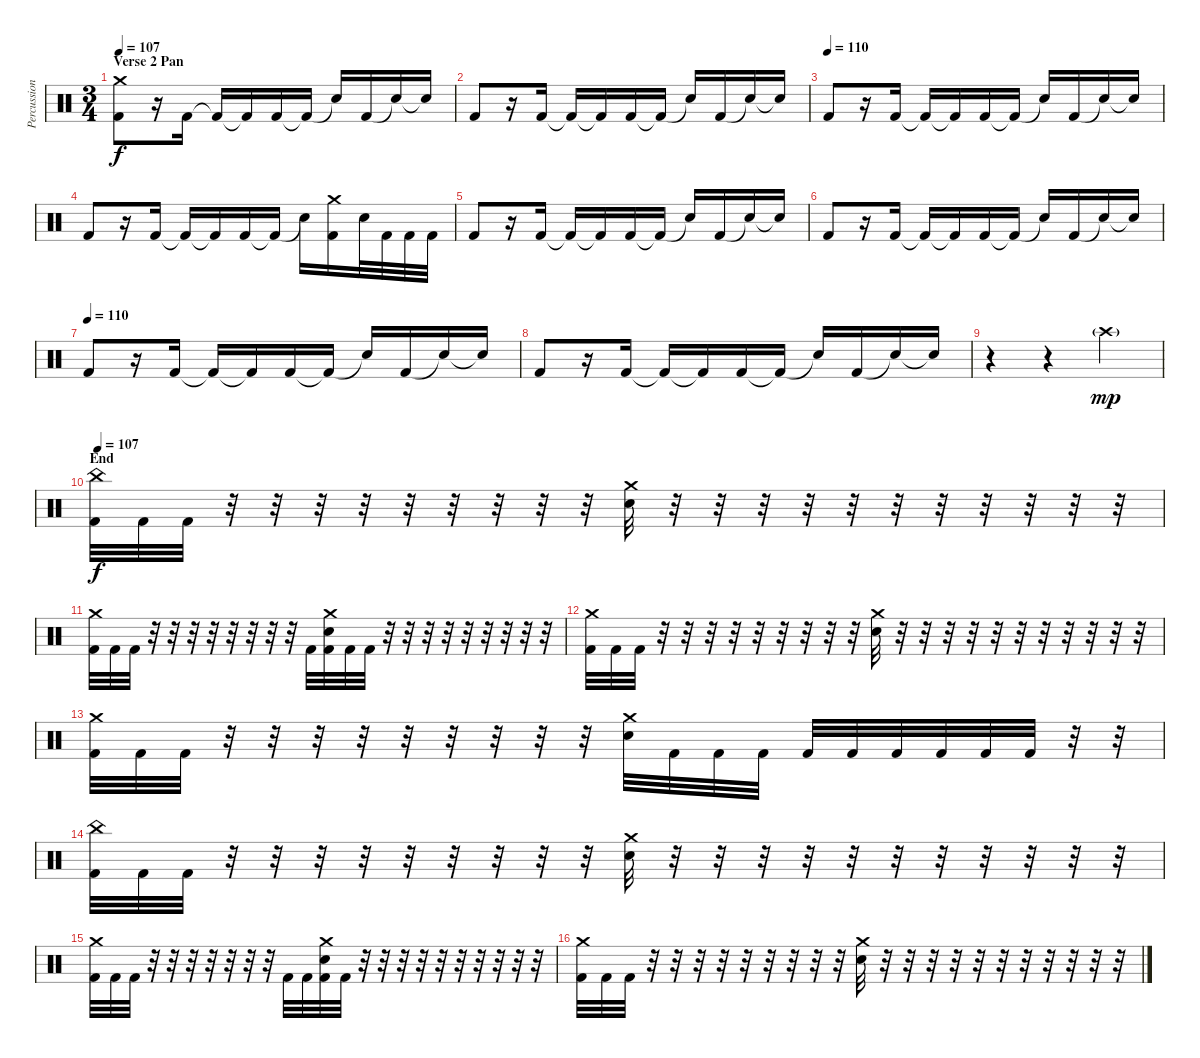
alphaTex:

\track ("Percussion" "Percussion") {instrument percussion}
\staff {score}
\articulation defaults
\ts (3 4)
\section ("" "Verse 2 Pan")
\tempo 110
\tempo 107
\clef neutral
\ks c
("Crash medium (hit)" "Kick (hit) 2").8{dy f} r.16 "Kick (hit) 2".16 "Kick (hit) 2"{t}.16 "Kick (hit) 2"{t}.16 "Kick (hit) 2".16 "Kick (hit) 2"{t}.16 "Snare (hit)"{t}.16 "Kick (hit) 2".16 "Snare (hit)"{t}.16 "Snare (hit)"{t}.16 |
"Kick (hit) 2".8 r.16 "Kick (hit) 2".16 "Kick (hit) 2"{t}.16 "Kick (hit) 2"{t}.16 "Kick (hit) 2".16 "Kick (hit) 2"{t}.16 "Snare (hit)"{t}.16 "Kick (hit) 2".16 "Snare (hit)"{t}.16 "Snare (hit)"{t}.16 |
\tempo (110)
"Kick (hit) 2".8 r.16 "Kick (hit) 2".16 "Kick (hit) 2"{t}.16 "Kick (hit) 2"{t}.16 "Kick (hit) 2".16 "Kick (hit) 2"{t}.16 "Snare (hit)"{t}.16 "Kick (hit) 2".16 "Snare (hit)"{t}.16 "Snare (hit)"{t}.16 |
"Kick (hit) 2".8 r.16 "Kick (hit) 2".16 "Kick (hit) 2"{t}.16 "Kick (hit) 2"{t}.16 "Kick (hit) 2".16 "Kick (hit) 2"{t}.16 "Snare (hit)"{t}.16 ("Crash medium (hit)" "Kick (hit) 2").16 "Electric Snare (hit)".32 "Kick (hit) 2".32 "Kick (hit) 2".32 "Kick (hit) 2".32 |
"Kick (hit) 2".8 r.16 "Kick (hit) 2".16 "Kick (hit) 2"{t}.16 "Kick (hit) 2"{t}.16 "Kick (hit) 2".16 "Kick (hit) 2"{t}.16 "Snare (hit)"{t}.16 "Kick (hit) 2".16 "Snare (hit)"{t}.16 "Snare (hit)"{t}.16 |
"Kick (hit) 2".8 r.16 "Kick (hit) 2".16 "Kick (hit) 2"{t}.16 "Kick (hit) 2"{t}.16 "Kick (hit) 2".16 "Kick (hit) 2"{t}.16 "Snare (hit)"{t}.16 "Kick (hit) 2".16 "Snare (hit)"{t}.16 "Snare (hit)"{t}.16 |
\tempo (110)
"Kick (hit) 2".8 r.16 "Kick (hit) 2".16 "Kick (hit) 2"{t}.16 "Kick (hit) 2"{t}.16 "Kick (hit) 2".16 "Kick (hit) 2"{t}.16 "Snare (hit)"{t}.16 "Kick (hit) 2".16 "Snare (hit)"{t}.16 "Snare (hit)"{t}.16 |
"Kick (hit) 2".8 r.16 "Kick (hit) 2".16 "Kick (hit) 2"{t}.16 "Kick (hit) 2"{t}.16 "Kick (hit) 2".16 "Kick (hit) 2"{t}.16 "Snare (hit)"{t}.16 "Kick (hit) 2".16 "Snare (hit)"{t}.16 "Snare (hit)"{t}.16 |
r.4 r.4 "Crash high (hit)"{g}.4{dy mp} |
\section ("" "End")
\tempo 107
("China (hit)" "Kick (hit) 2").32{dy f} "Kick (hit) 2".32 "Kick (hit) 2".32 r.32 r.32 r.32 r.32 r.32 r.32 r.32 r.32 r.32 ("Crash medium (hit)" "Electric Snare (hit)").32 r.32 r.32 r.32 r.32 r.32 r.32 r.32 r.32 r.32 r.32 r.32 |
("Crash medium (hit)" "Kick (hit) 2").32 "Kick (hit) 2".32 "Kick (hit) 2".32 r.32 r.32 r.32 r.32 r.32 r.32 r.32 r.32 "Kick (hit) 2".32 ("Crash medium (hit)" "Electric Snare (hit)" "Kick (hit) 2").32 "Kick (hit) 2".32 "Kick (hit) 2".32 r.32 r.32 r.32 r.32 r.32 r.32 r.32 r.32 r.32 |
("Crash medium (hit)" "Kick (hit) 2").32 "Kick (hit) 2".32 "Kick (hit) 2".32 r.32 r.32 r.32 r.32 r.32 r.32 r.32 r.32 r.32 ("Crash medium (hit)" "Electric Snare (hit)").32 r.32 r.32 r.32 r.32 r.32 r.32 r.32 r.32 r.32 r.32 r.32 |
("Crash medium (hit)" "Kick (hit) 2").32 "Kick (hit) 2".32 "Kick (hit) 2".32 r.32 r.32 r.32 r.32 r.32 r.32 r.32 r.32 r.32 ("Crash medium (hit)" "Electric Snare (hit)").32 "Kick (hit) 2".32 "Kick (hit) 2".32 "Kick (hit) 2".32 "Kick (hit) 2".32 "Kick (hit) 2".32 "Kick (hit) 2".32 "Kick (hit) 2".32 "Kick (hit) 2".32 "Kick (hit) 2".32 r.32 r.32 |
("China (hit)" "Kick (hit) 2").32 "Kick (hit) 2".32 "Kick (hit) 2".32 r.32 r.32 r.32 r.32 r.32 r.32 r.32 r.32 r.32 ("Crash medium (hit)" "Electric Snare (hit)").32 r.32 r.32 r.32 r.32 r.32 r.32 r.32 r.32 r.32 r.32 r.32 |
("Crash medium (hit)" "Kick (hit) 2").32 "Kick (hit) 2".32 "Kick (hit) 2".32 r.32 r.32 r.32 r.32 r.32 r.32 r.32 "Kick (hit) 2".32 "Kick (hit) 2".32 ("Crash medium (hit)" "Electric Snare (hit)" "Kick (hit) 2").32 "Kick (hit) 2".32 r.32 r.32 r.32 r.32 r.32 r.32 r.32 r.32 r.32 r.32 |
("Crash medium (hit)" "Kick (hit) 2").32 "Kick (hit) 2".32 "Kick (hit) 2".32 r.32 r.32 r.32 r.32 r.32 r.32 r.32 r.32 r.32 ("Crash medium (hit)" "Electric Snare (hit)").32 r.32 r.32 r.32 r.32 r.32 r.32 r.32 r.32 r.32 r.32 r.32
